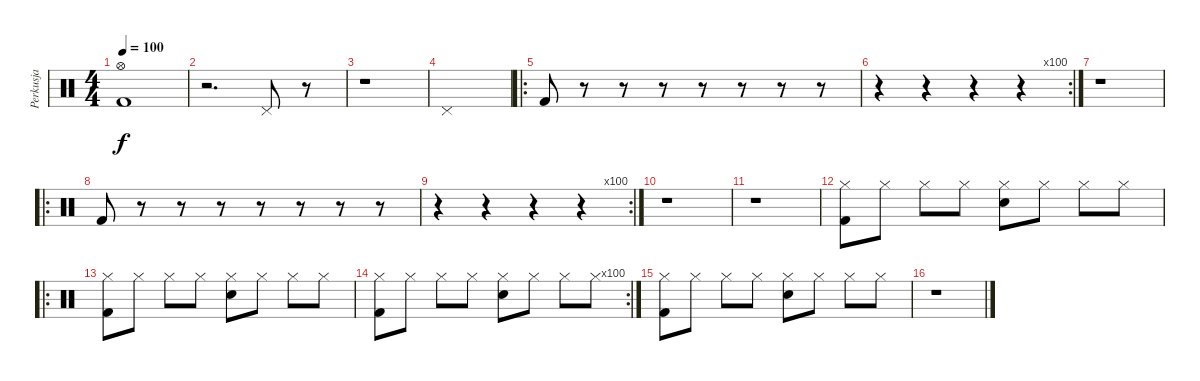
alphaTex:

\track ("Perkusja" "Perkusja") {instrument percussion}
\staff {score}
\articulation defaults
\ts (4 4)
\tempo 100
\clef neutral
\ks c
("Hi-Hat (open)" "Kick (hit) 2").1{dy f} |
r.2{d} "Pedal Hi-Hat (hit)".8 r.8 |
r.1 |
"Pedal Hi-Hat (hit)".1 |
\ro "Kick (hit) 2".8
r.8 r.8 r.8 r.8 r.8 r.8 r.8 |
\rc 100
r.4 r.4 r.4 r.4 |
r.1 |
\ro "Kick (hit) 2".8
r.8 r.8 r.8 r.8 r.8 r.8 r.8 |
\rc 100
r.4 r.4 r.4 r.4 |
r.1 |
r.1 |
("Hi-Hat (closed)" "Kick (hit) 2").8 "Hi-Hat (closed)".8 "Hi-Hat (closed)".8 "Hi-Hat (closed)".8 ("Hi-Hat (closed)" "Electric Snare (hit)").8 "Hi-Hat (closed)".8 "Hi-Hat (closed)".8 "Hi-Hat (closed)".8 |
\ro
("Hi-Hat (closed)" "Kick (hit) 2").8 "Hi-Hat (closed)".8 "Hi-Hat (closed)".8 "Hi-Hat (closed)".8 ("Hi-Hat (closed)" "Electric Snare (hit)").8 "Hi-Hat (closed)".8 "Hi-Hat (closed)".8 "Hi-Hat (closed)".8 |
\rc 100
("Hi-Hat (closed)" "Kick (hit) 2").8 "Hi-Hat (closed)".8 "Hi-Hat (closed)".8 "Hi-Hat (closed)".8 ("Hi-Hat (closed)" "Electric Snare (hit)").8 "Hi-Hat (closed)".8 "Hi-Hat (closed)".8 "Hi-Hat (closed)".8 |
("Hi-Hat (closed)" "Kick (hit) 2").8 "Hi-Hat (closed)".8 "Hi-Hat (closed)".8 "Hi-Hat (closed)".8 ("Hi-Hat (closed)" "Electric Snare (hit)").8 "Hi-Hat (closed)".8 "Hi-Hat (closed)".8 "Hi-Hat (closed)".8 |
r.1
